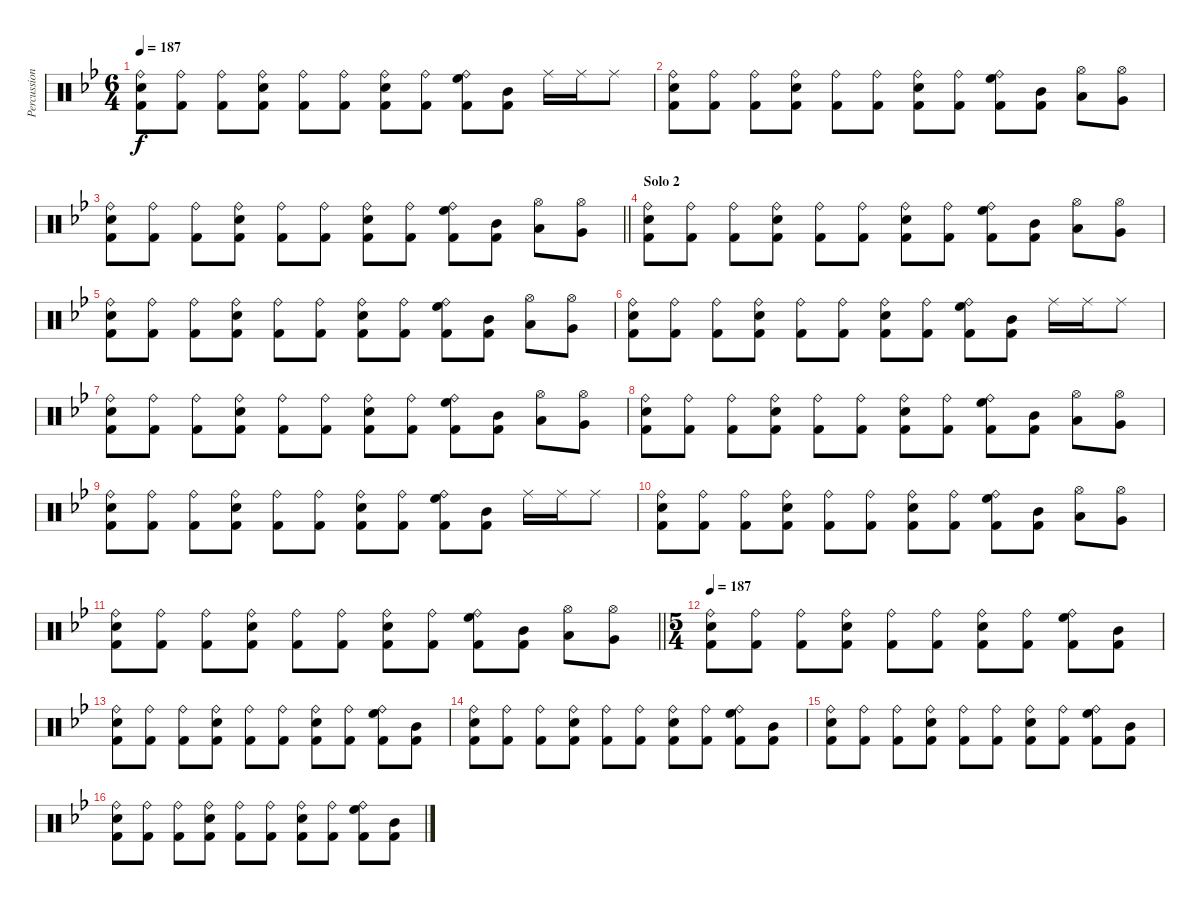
\track ("Percussion" "Percussion") {instrument percussion}
\staff {score}
\articulation defaults
\ts (6 4)
\tempo 187
\clef neutral
\ks bb
("Ride (bell)" "Snare (hit) 2" "Kick (hit) 2").8{dy f} ("Ride (bell)" "Kick (hit) 2").8 ("Ride (bell)" "Kick (hit) 2").8 ("Ride (bell)" "Snare (hit) 2" "Kick (hit) 2").8 ("Ride (bell)" "Kick (hit) 2").8 ("Ride (bell)" "Kick (hit) 2").8 ("Ride (bell)" "Snare (hit) 2" "Kick (hit) 2").8 ("Ride (bell)" "Kick (hit) 2").8 ("Ride (bell)" "High Floor Tom (hit)" "Kick (hit) 2").8 ("Mid Tom (hit)" "Kick (hit) 2").8 "Ride (middle)".16 "Ride (middle)".16 "Ride (middle)".8 |
("Ride (bell)" "Snare (hit) 2" "Kick (hit) 2").8 ("Ride (bell)" "Kick (hit) 2").8 ("Ride (bell)" "Kick (hit) 2").8 ("Ride (bell)" "Snare (hit) 2" "Kick (hit) 2").8 ("Ride (bell)" "Kick (hit) 2").8 ("Ride (bell)" "Kick (hit) 2").8 ("Ride (bell)" "Snare (hit) 2" "Kick (hit) 2").8 ("Ride (bell)" "Kick (hit) 2").8 ("Ride (bell)" "High Floor Tom (hit)" "Kick (hit) 2").8 ("Mid Tom (hit)" "Kick (hit) 2").8 ("Low Tom (hit)" "Hi-Hat (open)").8 ("Very Low Tom (hit)" "Hi-Hat (open)").8 |
\barLineRight lightlight
("Ride (bell)" "Snare (hit) 2" "Kick (hit) 2").8 ("Ride (bell)" "Kick (hit) 2").8 ("Ride (bell)" "Kick (hit) 2").8 ("Ride (bell)" "Snare (hit) 2" "Kick (hit) 2").8 ("Ride (bell)" "Kick (hit) 2").8 ("Ride (bell)" "Kick (hit) 2").8 ("Ride (bell)" "Snare (hit) 2" "Kick (hit) 2").8 ("Ride (bell)" "Kick (hit) 2").8 ("Ride (bell)" "High Floor Tom (hit)" "Kick (hit) 2").8 ("Mid Tom (hit)" "Kick (hit) 2").8 ("Low Tom (hit)" "Hi-Hat (open)").8 ("Very Low Tom (hit)" "Hi-Hat (open)").8 |
\section ("" "Solo 2")
("Ride (bell)" "Snare (hit) 2" "Kick (hit) 2").8 ("Ride (bell)" "Kick (hit) 2").8 ("Ride (bell)" "Kick (hit) 2").8 ("Ride (bell)" "Snare (hit) 2" "Kick (hit) 2").8 ("Ride (bell)" "Kick (hit) 2").8 ("Ride (bell)" "Kick (hit) 2").8 ("Ride (bell)" "Snare (hit) 2" "Kick (hit) 2").8 ("Ride (bell)" "Kick (hit) 2").8 ("Ride (bell)" "High Floor Tom (hit)" "Kick (hit) 2").8 ("Mid Tom (hit)" "Kick (hit) 2").8 ("Low Tom (hit)" "Hi-Hat (open)").8 ("Very Low Tom (hit)" "Hi-Hat (open)").8 |
("Ride (bell)" "Snare (hit) 2" "Kick (hit) 2").8 ("Ride (bell)" "Kick (hit) 2").8 ("Ride (bell)" "Kick (hit) 2").8 ("Ride (bell)" "Snare (hit) 2" "Kick (hit) 2").8 ("Ride (bell)" "Kick (hit) 2").8 ("Ride (bell)" "Kick (hit) 2").8 ("Ride (bell)" "Snare (hit) 2" "Kick (hit) 2").8 ("Ride (bell)" "Kick (hit) 2").8 ("Ride (bell)" "High Floor Tom (hit)" "Kick (hit) 2").8 ("Mid Tom (hit)" "Kick (hit) 2").8 ("Low Tom (hit)" "Hi-Hat (open)").8 ("Very Low Tom (hit)" "Hi-Hat (open)").8 |
("Ride (bell)" "Snare (hit) 2" "Kick (hit) 2").8 ("Ride (bell)" "Kick (hit) 2").8 ("Ride (bell)" "Kick (hit) 2").8 ("Ride (bell)" "Snare (hit) 2" "Kick (hit) 2").8 ("Ride (bell)" "Kick (hit) 2").8 ("Ride (bell)" "Kick (hit) 2").8 ("Ride (bell)" "Snare (hit) 2" "Kick (hit) 2").8 ("Ride (bell)" "Kick (hit) 2").8 ("Ride (bell)" "High Floor Tom (hit)" "Kick (hit) 2").8 ("Mid Tom (hit)" "Kick (hit) 2").8 "Ride (middle)".16 "Ride (middle)".16 "Ride (middle)".8 |
("Ride (bell)" "Snare (hit) 2" "Kick (hit) 2").8 ("Ride (bell)" "Kick (hit) 2").8 ("Ride (bell)" "Kick (hit) 2").8 ("Ride (bell)" "Snare (hit) 2" "Kick (hit) 2").8 ("Ride (bell)" "Kick (hit) 2").8 ("Ride (bell)" "Kick (hit) 2").8 ("Ride (bell)" "Snare (hit) 2" "Kick (hit) 2").8 ("Ride (bell)" "Kick (hit) 2").8 ("Ride (bell)" "High Floor Tom (hit)" "Kick (hit) 2").8 ("Mid Tom (hit)" "Kick (hit) 2").8 ("Low Tom (hit)" "Hi-Hat (open)").8 ("Very Low Tom (hit)" "Hi-Hat (open)").8 |
("Ride (bell)" "Snare (hit) 2" "Kick (hit) 2").8 ("Ride (bell)" "Kick (hit) 2").8 ("Ride (bell)" "Kick (hit) 2").8 ("Ride (bell)" "Snare (hit) 2" "Kick (hit) 2").8 ("Ride (bell)" "Kick (hit) 2").8 ("Ride (bell)" "Kick (hit) 2").8 ("Ride (bell)" "Snare (hit) 2" "Kick (hit) 2").8 ("Ride (bell)" "Kick (hit) 2").8 ("Ride (bell)" "High Floor Tom (hit)" "Kick (hit) 2").8 ("Mid Tom (hit)" "Kick (hit) 2").8 ("Low Tom (hit)" "Hi-Hat (open)").8 ("Very Low Tom (hit)" "Hi-Hat (open)").8 |
("Ride (bell)" "Snare (hit) 2" "Kick (hit) 2").8 ("Ride (bell)" "Kick (hit) 2").8 ("Ride (bell)" "Kick (hit) 2").8 ("Ride (bell)" "Snare (hit) 2" "Kick (hit) 2").8 ("Ride (bell)" "Kick (hit) 2").8 ("Ride (bell)" "Kick (hit) 2").8 ("Ride (bell)" "Snare (hit) 2" "Kick (hit) 2").8 ("Ride (bell)" "Kick (hit) 2").8 ("Ride (bell)" "High Floor Tom (hit)" "Kick (hit) 2").8 ("Mid Tom (hit)" "Kick (hit) 2").8 "Ride (middle)".16 "Ride (middle)".16 "Ride (middle)".8 |
("Ride (bell)" "Snare (hit) 2" "Kick (hit) 2").8 ("Ride (bell)" "Kick (hit) 2").8 ("Ride (bell)" "Kick (hit) 2").8 ("Ride (bell)" "Snare (hit) 2" "Kick (hit) 2").8 ("Ride (bell)" "Kick (hit) 2").8 ("Ride (bell)" "Kick (hit) 2").8 ("Ride (bell)" "Snare (hit) 2" "Kick (hit) 2").8 ("Ride (bell)" "Kick (hit) 2").8 ("Ride (bell)" "High Floor Tom (hit)" "Kick (hit) 2").8 ("Mid Tom (hit)" "Kick (hit) 2").8 ("Low Tom (hit)" "Hi-Hat (open)").8 ("Very Low Tom (hit)" "Hi-Hat (open)").8 |
\barLineRight lightlight
("Ride (bell)" "Snare (hit) 2" "Kick (hit) 2").8 ("Ride (bell)" "Kick (hit) 2").8 ("Ride (bell)" "Kick (hit) 2").8 ("Ride (bell)" "Snare (hit) 2" "Kick (hit) 2").8 ("Ride (bell)" "Kick (hit) 2").8 ("Ride (bell)" "Kick (hit) 2").8 ("Ride (bell)" "Snare (hit) 2" "Kick (hit) 2").8 ("Ride (bell)" "Kick (hit) 2").8 ("Ride (bell)" "High Floor Tom (hit)" "Kick (hit) 2").8 ("Mid Tom (hit)" "Kick (hit) 2").8 ("Low Tom (hit)" "Hi-Hat (open)").8 ("Very Low Tom (hit)" "Hi-Hat (open)").8 |
\ts (5 4)
\tempo 187
("Ride (bell)" "Snare (hit) 2" "Kick (hit) 2").8 ("Ride (bell)" "Kick (hit) 2").8 ("Ride (bell)" "Kick (hit) 2").8 ("Ride (bell)" "Snare (hit) 2" "Kick (hit) 2").8 ("Ride (bell)" "Kick (hit) 2").8 ("Ride (bell)" "Kick (hit) 2").8 ("Ride (bell)" "Snare (hit) 2" "Kick (hit) 2").8 ("Ride (bell)" "Kick (hit) 2").8 ("Ride (bell)" "High Floor Tom (hit)" "Kick (hit) 2").8 ("Mid Tom (hit)" "Kick (hit) 2").8 |
("Ride (bell)" "Snare (hit) 2" "Kick (hit) 2").8 ("Ride (bell)" "Kick (hit) 2").8 ("Ride (bell)" "Kick (hit) 2").8 ("Ride (bell)" "Snare (hit) 2" "Kick (hit) 2").8 ("Ride (bell)" "Kick (hit) 2").8 ("Ride (bell)" "Kick (hit) 2").8 ("Ride (bell)" "Snare (hit) 2" "Kick (hit) 2").8 ("Ride (bell)" "Kick (hit) 2").8 ("Ride (bell)" "High Floor Tom (hit)" "Kick (hit) 2").8 ("Mid Tom (hit)" "Kick (hit) 2").8 |
("Ride (bell)" "Snare (hit) 2" "Kick (hit) 2").8 ("Ride (bell)" "Kick (hit) 2").8 ("Ride (bell)" "Kick (hit) 2").8 ("Ride (bell)" "Snare (hit) 2" "Kick (hit) 2").8 ("Ride (bell)" "Kick (hit) 2").8 ("Ride (bell)" "Kick (hit) 2").8 ("Ride (bell)" "Snare (hit) 2" "Kick (hit) 2").8 ("Ride (bell)" "Kick (hit) 2").8 ("Ride (bell)" "High Floor Tom (hit)" "Kick (hit) 2").8 ("Mid Tom (hit)" "Kick (hit) 2").8 |
("Ride (bell)" "Snare (hit) 2" "Kick (hit) 2").8 ("Ride (bell)" "Kick (hit) 2").8 ("Ride (bell)" "Kick (hit) 2").8 ("Ride (bell)" "Snare (hit) 2" "Kick (hit) 2").8 ("Ride (bell)" "Kick (hit) 2").8 ("Ride (bell)" "Kick (hit) 2").8 ("Ride (bell)" "Snare (hit) 2" "Kick (hit) 2").8 ("Ride (bell)" "Kick (hit) 2").8 ("Ride (bell)" "High Floor Tom (hit)" "Kick (hit) 2").8 ("Mid Tom (hit)" "Kick (hit) 2").8 |
("Ride (bell)" "Snare (hit) 2" "Kick (hit) 2").8 ("Ride (bell)" "Kick (hit) 2").8 ("Ride (bell)" "Kick (hit) 2").8 ("Ride (bell)" "Snare (hit) 2" "Kick (hit) 2").8 ("Ride (bell)" "Kick (hit) 2").8 ("Ride (bell)" "Kick (hit) 2").8 ("Ride (bell)" "Snare (hit) 2" "Kick (hit) 2").8 ("Ride (bell)" "Kick (hit) 2").8 ("Ride (bell)" "High Floor Tom (hit)" "Kick (hit) 2").8 ("Mid Tom (hit)" "Kick (hit) 2").8
